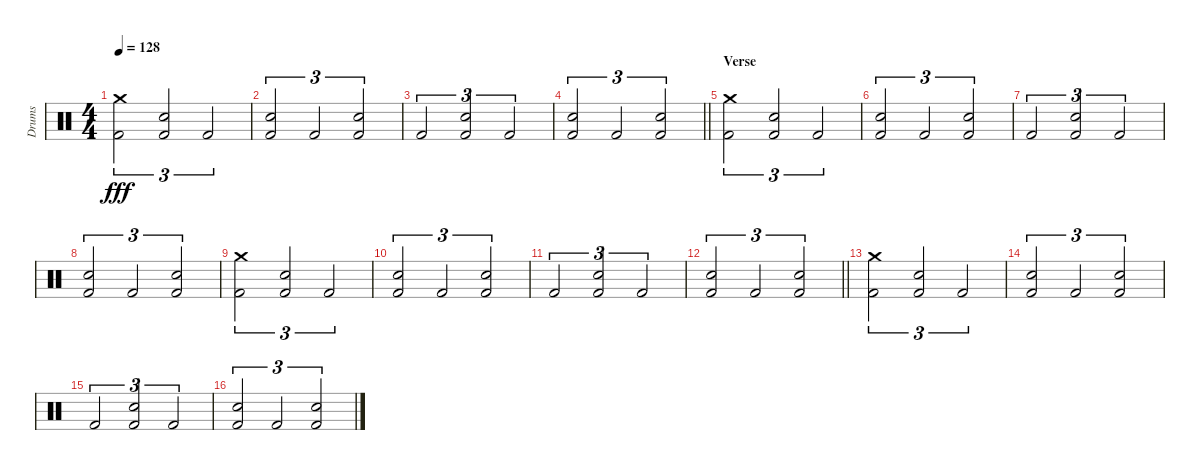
\track ("Drums" "Drums") {instrument percussion}
\staff {score}
\articulation defaults
\ts (4 4)
\tempo 128
\clef neutral
\ks c
("Crash medium (hit)" "Kick (hit) 2").2{tu (3 2) dy fff} ("Snare (hit) 2" "Kick (hit) 2").2{tu (3 2)} "Kick (hit) 2".2{tu (3 2)} |
("Snare (hit) 2" "Kick (hit) 2").2{tu (3 2)} "Kick (hit) 2".2{tu (3 2)} ("Snare (hit) 2" "Kick (hit) 2").2{tu (3 2)} |
"Kick (hit) 2".2{tu (3 2)} ("Snare (hit) 2" "Kick (hit) 2").2{tu (3 2)} "Kick (hit) 2".2{tu (3 2)} |
\barLineRight lightlight
("Snare (hit) 2" "Kick (hit) 2").2{tu (3 2)} "Kick (hit) 2".2{tu (3 2)} ("Snare (hit) 2" "Kick (hit) 2").2{tu (3 2)} |
\section ("" "Verse")
("Crash medium (hit)" "Kick (hit) 2").2{tu (3 2)} ("Snare (hit) 2" "Kick (hit) 2").2{tu (3 2)} "Kick (hit) 2".2{tu (3 2)} |
("Snare (hit) 2" "Kick (hit) 2").2{tu (3 2)} "Kick (hit) 2".2{tu (3 2)} ("Snare (hit) 2" "Kick (hit) 2").2{tu (3 2)} |
"Kick (hit) 2".2{tu (3 2)} ("Snare (hit) 2" "Kick (hit) 2").2{tu (3 2)} "Kick (hit) 2".2{tu (3 2)} |
("Snare (hit) 2" "Kick (hit) 2").2{tu (3 2)} "Kick (hit) 2".2{tu (3 2)} ("Snare (hit) 2" "Kick (hit) 2").2{tu (3 2)} |
("Crash medium (hit)" "Kick (hit) 2").2{tu (3 2)} ("Snare (hit) 2" "Kick (hit) 2").2{tu (3 2)} "Kick (hit) 2".2{tu (3 2)} |
("Snare (hit) 2" "Kick (hit) 2").2{tu (3 2)} "Kick (hit) 2".2{tu (3 2)} ("Snare (hit) 2" "Kick (hit) 2").2{tu (3 2)} |
"Kick (hit) 2".2{tu (3 2)} ("Snare (hit) 2" "Kick (hit) 2").2{tu (3 2)} "Kick (hit) 2".2{tu (3 2)} |
\barLineRight lightlight
("Snare (hit) 2" "Kick (hit) 2").2{tu (3 2)} "Kick (hit) 2".2{tu (3 2)} ("Snare (hit) 2" "Kick (hit) 2").2{tu (3 2)} |
\section ("" "")
("Crash medium (hit)" "Kick (hit) 2").2{tu (3 2)} ("Snare (hit) 2" "Kick (hit) 2").2{tu (3 2)} "Kick (hit) 2".2{tu (3 2)} |
("Snare (hit) 2" "Kick (hit) 2").2{tu (3 2)} "Kick (hit) 2".2{tu (3 2)} ("Snare (hit) 2" "Kick (hit) 2").2{tu (3 2)} |
"Kick (hit) 2".2{tu (3 2)} ("Snare (hit) 2" "Kick (hit) 2").2{tu (3 2)} "Kick (hit) 2".2{tu (3 2)} |
("Snare (hit) 2" "Kick (hit) 2").2{tu (3 2)} "Kick (hit) 2".2{tu (3 2)} ("Snare (hit) 2" "Kick (hit) 2").2{tu (3 2)}
